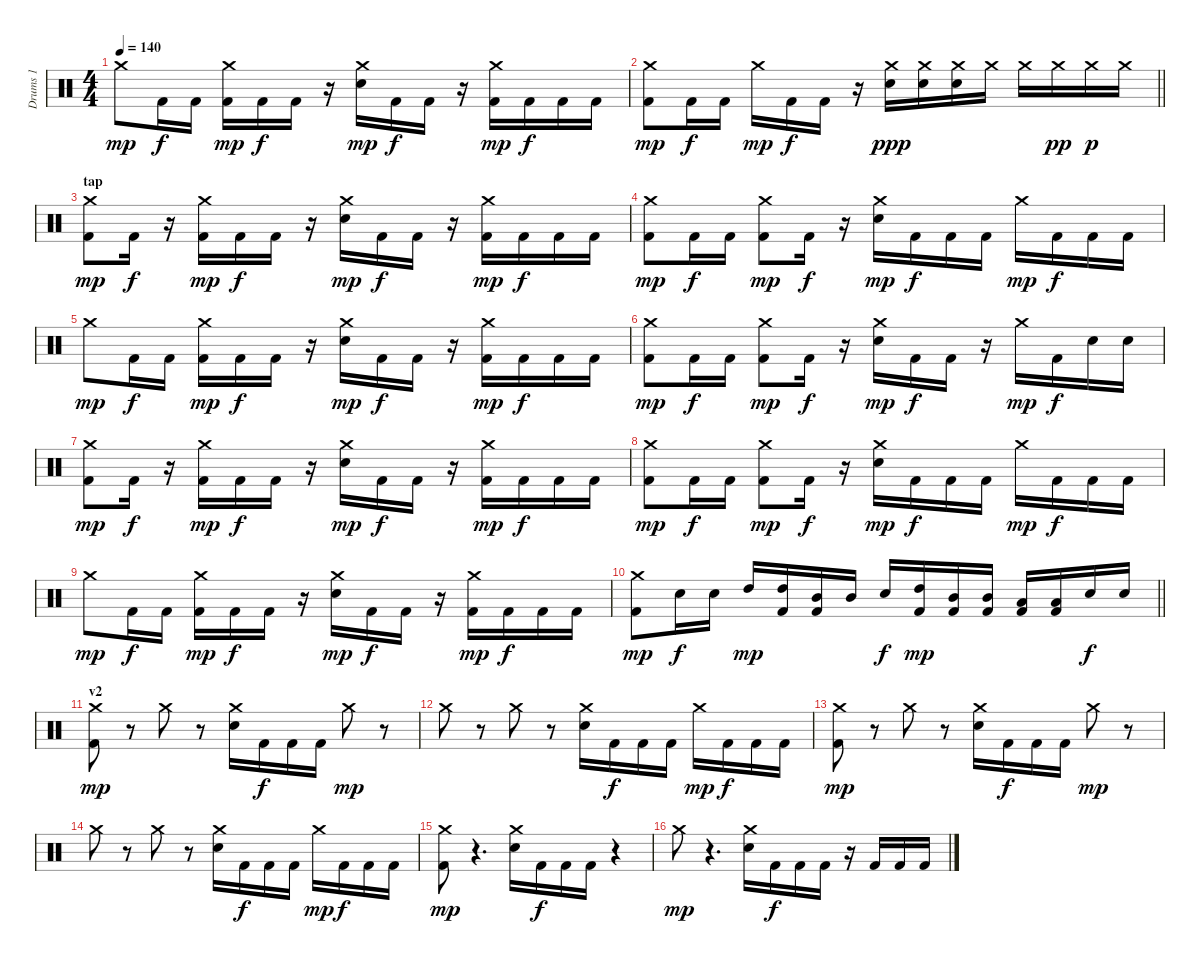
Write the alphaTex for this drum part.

\track ("Drums 1" "Drums 1") {instrument percussion}
\staff {score}
\articulation defaults
\ts (4 4)
\tempo 140
\clef neutral
\ks c "Crash medium (hit)".8{dy mp} "Kick (hit) 2".16{dy f} "Kick (hit) 2".16
("Kick (hit) 2" "Crash medium (hit)").16{dy mp} "Kick (hit) 2".16{dy f} "Kick (hit) 2".16 r.16 ("Snare (hit) 2" "Crash medium (hit)").16{dy mp} "Kick (hit) 2".16{dy f} "Kick (hit) 2".16 r.16 ("Crash medium (hit)" "Kick (hit) 2").16{dy mp} "Kick (hit) 2".16{dy f} "Kick (hit) 2".16 "Kick (hit) 2".16 |
\barLineRight lightlight
("Crash medium (hit)" "Kick (hit) 2").8{dy mp} "Kick (hit) 2".16{dy f} "Kick (hit) 2".16 "Crash medium (hit)".16{dy mp} "Kick (hit) 2".16{dy f} "Kick (hit) 2".16 r.16 ("Snare (hit) 2" "Crash medium (hit)").16{dy ppp} ("Crash medium (hit)" "Snare (hit) 2").16 ("Crash medium (hit)" "Snare (hit) 2").16 "Crash medium (hit)".16 "Crash medium (hit)".16 "Crash medium (hit)".16{dy pp} "Crash medium (hit)".16{dy p} "Crash medium (hit)".16 |
\section ("" "tap")
("Kick (hit) 2" "Crash medium (hit)").8{dy mp} "Kick (hit) 2".16{dy f} r.16 ("Crash medium (hit)" "Kick (hit) 2").16{dy mp} "Kick (hit) 2".16{dy f} "Kick (hit) 2".16 r.16 ("Snare (hit) 2" "Crash medium (hit)").16{dy mp} "Kick (hit) 2".16{dy f} "Kick (hit) 2".16 r.16 ("Crash medium (hit)" "Kick (hit) 2").16{dy mp} "Kick (hit) 2".16{dy f} "Kick (hit) 2".16 "Kick (hit) 2".16 |
("Kick (hit) 2" "Crash medium (hit)").8{dy mp} "Kick (hit) 2".16{dy f} "Kick (hit) 2".16 ("Crash medium (hit)" "Kick (hit) 2").8{dy mp} "Kick (hit) 2".16{dy f} r.16 ("Snare (hit) 2" "Crash medium (hit)").16{dy mp} "Kick (hit) 2".16{dy f} "Kick (hit) 2".16 "Kick (hit) 2".16 "Crash medium (hit)".16{dy mp} "Kick (hit) 2".16{dy f} "Kick (hit) 2".16 "Kick (hit) 2".16 |
"Crash medium (hit)".8{dy mp} "Kick (hit) 2".16{dy f} "Kick (hit) 2".16 ("Kick (hit) 2" "Crash medium (hit)").16{dy mp} "Kick (hit) 2".16{dy f} "Kick (hit) 2".16 r.16 ("Crash medium (hit)" "Snare (hit) 2").16{dy mp} "Kick (hit) 2".16{dy f} "Kick (hit) 2".16 r.16 ("Crash medium (hit)" "Kick (hit) 2").16{dy mp} "Kick (hit) 2".16{dy f} "Kick (hit) 2".16 "Kick (hit) 2".16 |
("Crash medium (hit)" "Kick (hit) 2").8{dy mp} "Kick (hit) 2".16{dy f} "Kick (hit) 2".16 ("Crash medium (hit)" "Kick (hit) 2").8{dy mp} "Kick (hit) 2".16{dy f} r.16 ("Crash medium (hit)" "Snare (hit) 2").16{dy mp} "Kick (hit) 2".16{dy f} "Kick (hit) 2".16 r.16 "Crash medium (hit)".16{dy mp} "Kick (hit) 2".16{dy f} "Snare (hit) 2".16 "Snare (hit) 2".16 |
("Crash medium (hit)" "Kick (hit) 2").8{dy mp} "Kick (hit) 2".16{dy f} r.16 ("Kick (hit) 2" "Crash medium (hit)").16{dy mp} "Kick (hit) 2".16{dy f} "Kick (hit) 2".16 r.16 ("Crash medium (hit)" "Snare (hit) 2").16{dy mp} "Kick (hit) 2".16{dy f} "Kick (hit) 2".16 r.16 ("Kick (hit) 2" "Crash medium (hit)").16{dy mp} "Kick (hit) 2".16{dy f} "Kick (hit) 2".16 "Kick (hit) 2".16 |
("Crash medium (hit)" "Kick (hit) 2").8{dy mp} "Kick (hit) 2".16{dy f} "Kick (hit) 2".16 ("Kick (hit) 2" "Crash medium (hit)").8{dy mp} "Kick (hit) 2".16{dy f} r.16 ("Crash medium (hit)" "Snare (hit) 2").16{dy mp} "Kick (hit) 2".16{dy f} "Kick (hit) 2".16 "Kick (hit) 2".16 "Crash medium (hit)".16{dy mp} "Kick (hit) 2".16{dy f} "Kick (hit) 2".16 "Kick (hit) 2".16 |
"Crash medium (hit)".8{dy mp} "Kick (hit) 2".16{dy f} "Kick (hit) 2".16 ("Kick (hit) 2" "Crash medium (hit)").16{dy mp} "Kick (hit) 2".16{dy f} "Kick (hit) 2".16 r.16 ("Snare (hit) 2" "Crash medium (hit)").16{dy mp} "Kick (hit) 2".16{dy f} "Kick (hit) 2".16 r.16 ("Kick (hit) 2" "Crash medium (hit)").16{dy mp} "Kick (hit) 2".16{dy f} "Kick (hit) 2".16 "Kick (hit) 2".16 |
\barLineRight lightlight
("Kick (hit) 2" "Crash medium (hit)").8{dy mp} "Snare (hit) 2".16{dy f} "Snare (hit) 2".16 "High Tom (hit)".16{dy mp} ("Kick (hit) 2" "High Tom (hit)").16 ("Kick (hit) 2" "Mid Tom (hit)").16 "Mid Tom (hit)".16 "Snare (hit) 2".16{dy f} ("Kick (hit) 2" "High Tom (hit)").16{dy mp} ("Kick (hit) 2" "Mid Tom (hit)").16 ("Kick (hit) 2" "Mid Tom (hit)").16 ("Kick (hit) 2" "Low Tom (hit)").16 ("Kick (hit) 2" "Low Tom (hit)").16 "Snare (hit) 2".16{dy f} "Snare (hit) 2".16 |
\section ("" "v2")
("Crash medium (hit)" "Kick (hit) 2").8{dy mp} r.8 "Crash medium (hit)".8 r.8 ("Snare (hit) 2" "Crash medium (hit)").16 "Kick (hit) 2".16{dy f} "Kick (hit) 2".16 "Kick (hit) 2".16 "Crash medium (hit)".8{dy mp} r.8 |
"Crash medium (hit)".8 r.8 "Crash medium (hit)".8 r.8 ("Crash medium (hit)" "Snare (hit) 2").16 "Kick (hit) 2".16{dy f} "Kick (hit) 2".16 "Kick (hit) 2".16 "Crash medium (hit)".16{dy mp} "Kick (hit) 2".16{dy f} "Kick (hit) 2".16 "Kick (hit) 2".16 |
("Kick (hit) 2" "Crash medium (hit)").8{dy mp} r.8 "Crash medium (hit)".8 r.8 ("Snare (hit) 2" "Crash medium (hit)").16 "Kick (hit) 2".16{dy f} "Kick (hit) 2".16 "Kick (hit) 2".16 "Crash medium (hit)".8{dy mp} r.8 |
"Crash medium (hit)".8 r.8 "Crash medium (hit)".8 r.8 ("Crash medium (hit)" "Snare (hit) 2").16 "Kick (hit) 2".16{dy f} "Kick (hit) 2".16 "Kick (hit) 2".16 "Crash medium (hit)".16{dy mp} "Kick (hit) 2".16{dy f} "Kick (hit) 2".16 "Kick (hit) 2".16 |
("Kick (hit) 2" "Crash medium (hit)").8{dy mp} r.4{d} ("Crash medium (hit)" "Snare (hit) 2").16 "Kick (hit) 2".16{dy f} "Kick (hit) 2".16 "Kick (hit) 2".16 r.4 |
"Crash medium (hit)".8{dy mp} r.4{d} ("Snare (hit) 2" "Crash medium (hit)").16 "Kick (hit) 2".16{dy f} "Kick (hit) 2".16 "Kick (hit) 2".16 r.16 "Kick (hit) 2".16 "Kick (hit) 2".16 "Kick (hit) 2".16
